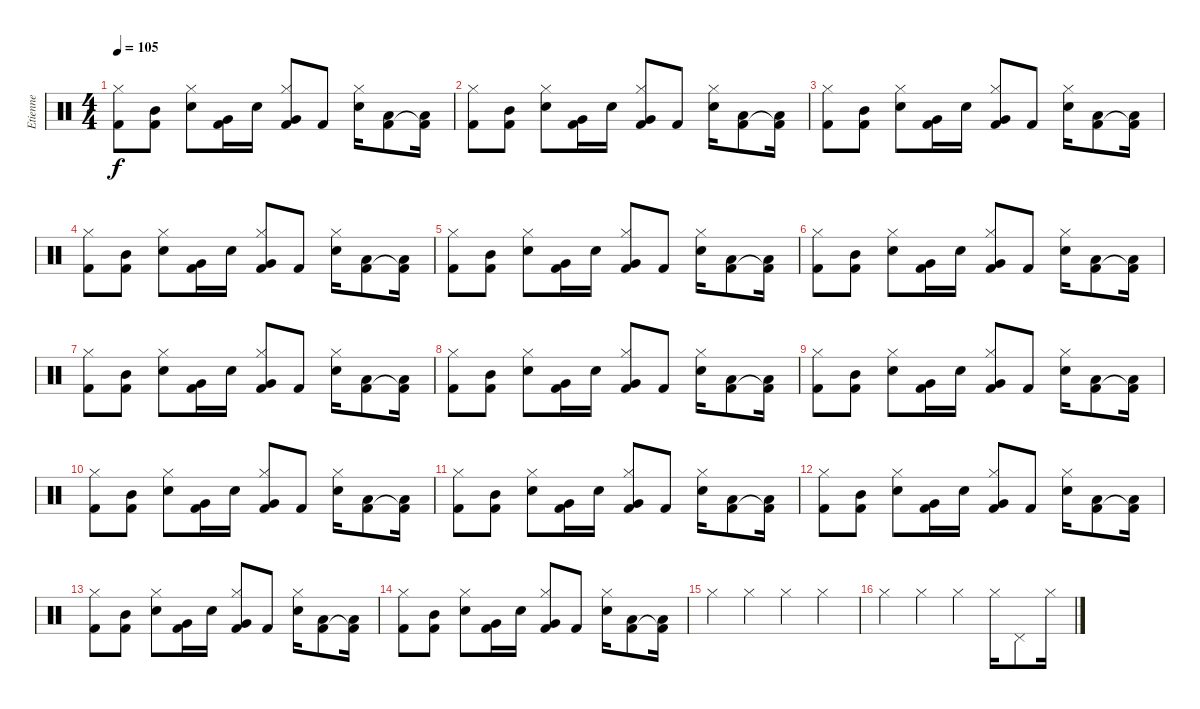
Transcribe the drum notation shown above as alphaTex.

\track ("Etienne" "Etienne") {instrument percussion}
\staff {score}
\articulation defaults
\ts (4 4)
\tempo 105
\clef neutral
\ks c
("Kick (hit) 2" "Hi-Hat (closed)").8{dy f} ("Kick (hit) 2" "Mid Tom (hit)").8 ("Snare (hit) 2" "Hi-Hat (closed)").8 ("Kick (hit) 2" "Very Low Tom (hit)").16 "Snare (hit) 2".16 ("Kick (hit) 2" "Hi-Hat (closed)" "Very Low Tom (hit)").8 "Kick (hit) 2".8 ("Snare (hit) 2" "Hi-Hat (closed)").16 ("Kick (hit) 2" "Low Floor Tom (hit)").8 ("Kick (hit) 2"{t} "Low Floor Tom (hit)").16 |
("Kick (hit) 2" "Hi-Hat (closed)").8 ("Kick (hit) 2" "Mid Tom (hit)").8 ("Snare (hit) 2" "Hi-Hat (closed)").8 ("Kick (hit) 2" "Very Low Tom (hit)").16 "Snare (hit) 2".16 ("Kick (hit) 2" "Hi-Hat (closed)" "Very Low Tom (hit)").8 "Kick (hit) 2".8 ("Snare (hit) 2" "Hi-Hat (closed)").16 ("Kick (hit) 2" "Low Floor Tom (hit)").8 ("Kick (hit) 2"{t} "Low Floor Tom (hit)").16 |
("Kick (hit) 2" "Hi-Hat (closed)").8 ("Kick (hit) 2" "Mid Tom (hit)").8 ("Snare (hit) 2" "Hi-Hat (closed)").8 ("Kick (hit) 2" "Very Low Tom (hit)").16 "Snare (hit) 2".16 ("Kick (hit) 2" "Hi-Hat (closed)" "Very Low Tom (hit)").8 "Kick (hit) 2".8 ("Snare (hit) 2" "Hi-Hat (closed)").16 ("Kick (hit) 2" "Low Floor Tom (hit)").8 ("Kick (hit) 2"{t} "Low Floor Tom (hit)").16 |
("Kick (hit) 2" "Hi-Hat (closed)").8 ("Kick (hit) 2" "Mid Tom (hit)").8 ("Snare (hit) 2" "Hi-Hat (closed)").8 ("Kick (hit) 2" "Very Low Tom (hit)").16 "Snare (hit) 2".16 ("Kick (hit) 2" "Hi-Hat (closed)" "Very Low Tom (hit)").8 "Kick (hit) 2".8 ("Snare (hit) 2" "Hi-Hat (closed)").16 ("Kick (hit) 2" "Low Floor Tom (hit)").8 ("Kick (hit) 2"{t} "Low Floor Tom (hit)").16 |
("Kick (hit) 2" "Hi-Hat (closed)").8 ("Kick (hit) 2" "Mid Tom (hit)").8 ("Snare (hit) 2" "Hi-Hat (closed)").8 ("Kick (hit) 2" "Very Low Tom (hit)").16 "Snare (hit) 2".16 ("Kick (hit) 2" "Hi-Hat (closed)" "Very Low Tom (hit)").8 "Kick (hit) 2".8 ("Snare (hit) 2" "Hi-Hat (closed)").16 ("Kick (hit) 2" "Low Floor Tom (hit)").8 ("Kick (hit) 2"{t} "Low Floor Tom (hit)").16 |
("Kick (hit) 2" "Hi-Hat (closed)").8 ("Kick (hit) 2" "Mid Tom (hit)").8 ("Snare (hit) 2" "Hi-Hat (closed)").8 ("Kick (hit) 2" "Very Low Tom (hit)").16 "Snare (hit) 2".16 ("Kick (hit) 2" "Hi-Hat (closed)" "Very Low Tom (hit)").8 "Kick (hit) 2".8 ("Snare (hit) 2" "Hi-Hat (closed)").16 ("Kick (hit) 2" "Low Floor Tom (hit)").8 ("Kick (hit) 2"{t} "Low Floor Tom (hit)").16 |
("Kick (hit) 2" "Hi-Hat (closed)").8 ("Kick (hit) 2" "Mid Tom (hit)").8 ("Snare (hit) 2" "Hi-Hat (closed)").8 ("Kick (hit) 2" "Very Low Tom (hit)").16 "Snare (hit) 2".16 ("Kick (hit) 2" "Hi-Hat (closed)" "Very Low Tom (hit)").8 "Kick (hit) 2".8 ("Snare (hit) 2" "Hi-Hat (closed)").16 ("Kick (hit) 2" "Low Floor Tom (hit)").8 ("Kick (hit) 2"{t} "Low Floor Tom (hit)").16 |
("Kick (hit) 2" "Hi-Hat (closed)").8 ("Kick (hit) 2" "Mid Tom (hit)").8 ("Snare (hit) 2" "Hi-Hat (closed)").8 ("Kick (hit) 2" "Very Low Tom (hit)").16 "Snare (hit) 2".16 ("Kick (hit) 2" "Hi-Hat (closed)" "Very Low Tom (hit)").8 "Kick (hit) 2".8 ("Snare (hit) 2" "Hi-Hat (closed)").16 ("Kick (hit) 2" "Low Floor Tom (hit)").8 ("Kick (hit) 2"{t} "Low Floor Tom (hit)").16 |
("Kick (hit) 2" "Hi-Hat (closed)").8 ("Kick (hit) 2" "Mid Tom (hit)").8 ("Snare (hit) 2" "Hi-Hat (closed)").8 ("Kick (hit) 2" "Very Low Tom (hit)").16 "Snare (hit) 2".16 ("Kick (hit) 2" "Hi-Hat (closed)" "Very Low Tom (hit)").8 "Kick (hit) 2".8 ("Snare (hit) 2" "Hi-Hat (closed)").16 ("Kick (hit) 2" "Low Floor Tom (hit)").8 ("Kick (hit) 2"{t} "Low Floor Tom (hit)").16 |
("Kick (hit) 2" "Hi-Hat (closed)").8 ("Kick (hit) 2" "Mid Tom (hit)").8 ("Snare (hit) 2" "Hi-Hat (closed)").8 ("Kick (hit) 2" "Very Low Tom (hit)").16 "Snare (hit) 2".16 ("Kick (hit) 2" "Hi-Hat (closed)" "Very Low Tom (hit)").8 "Kick (hit) 2".8 ("Snare (hit) 2" "Hi-Hat (closed)").16 ("Kick (hit) 2" "Low Floor Tom (hit)").8 ("Kick (hit) 2"{t} "Low Floor Tom (hit)").16 |
("Kick (hit) 2" "Hi-Hat (closed)").8 ("Kick (hit) 2" "Mid Tom (hit)").8 ("Snare (hit) 2" "Hi-Hat (closed)").8 ("Kick (hit) 2" "Very Low Tom (hit)").16 "Snare (hit) 2".16 ("Kick (hit) 2" "Hi-Hat (closed)" "Very Low Tom (hit)").8 "Kick (hit) 2".8 ("Snare (hit) 2" "Hi-Hat (closed)").16 ("Kick (hit) 2" "Low Floor Tom (hit)").8 ("Kick (hit) 2"{t} "Low Floor Tom (hit)").16 |
("Kick (hit) 2" "Hi-Hat (closed)").8 ("Kick (hit) 2" "Mid Tom (hit)").8 ("Snare (hit) 2" "Hi-Hat (closed)").8 ("Kick (hit) 2" "Very Low Tom (hit)").16 "Snare (hit) 2".16 ("Kick (hit) 2" "Hi-Hat (closed)" "Very Low Tom (hit)").8 "Kick (hit) 2".8 ("Snare (hit) 2" "Hi-Hat (closed)").16 ("Kick (hit) 2" "Low Floor Tom (hit)").8 ("Kick (hit) 2"{t} "Low Floor Tom (hit)").16 |
("Kick (hit) 2" "Hi-Hat (closed)").8 ("Kick (hit) 2" "Mid Tom (hit)").8 ("Snare (hit) 2" "Hi-Hat (closed)").8 ("Kick (hit) 2" "Very Low Tom (hit)").16 "Snare (hit) 2".16 ("Kick (hit) 2" "Hi-Hat (closed)" "Very Low Tom (hit)").8 "Kick (hit) 2".8 ("Snare (hit) 2" "Hi-Hat (closed)").16 ("Kick (hit) 2" "Low Floor Tom (hit)").8 ("Kick (hit) 2"{t} "Low Floor Tom (hit)").16 |
("Kick (hit) 2" "Hi-Hat (closed)").8 ("Kick (hit) 2" "Mid Tom (hit)").8 ("Snare (hit) 2" "Hi-Hat (closed)").8 ("Kick (hit) 2" "Very Low Tom (hit)").16 "Snare (hit) 2".16 ("Kick (hit) 2" "Hi-Hat (closed)" "Very Low Tom (hit)").8 "Kick (hit) 2".8 ("Snare (hit) 2" "Hi-Hat (closed)").16 ("Kick (hit) 2" "Low Floor Tom (hit)").8 ("Kick (hit) 2"{t} "Low Floor Tom (hit)").16 |
"Hi-Hat (closed)".4 "Hi-Hat (closed)".4 "Hi-Hat (closed)".4 "Hi-Hat (closed)".4 |
"Hi-Hat (closed)".4 "Hi-Hat (closed)".4 "Hi-Hat (closed)".4 "Hi-Hat (closed)".16 "Pedal Hi-Hat (hit)".8 "Hi-Hat (closed)".16
